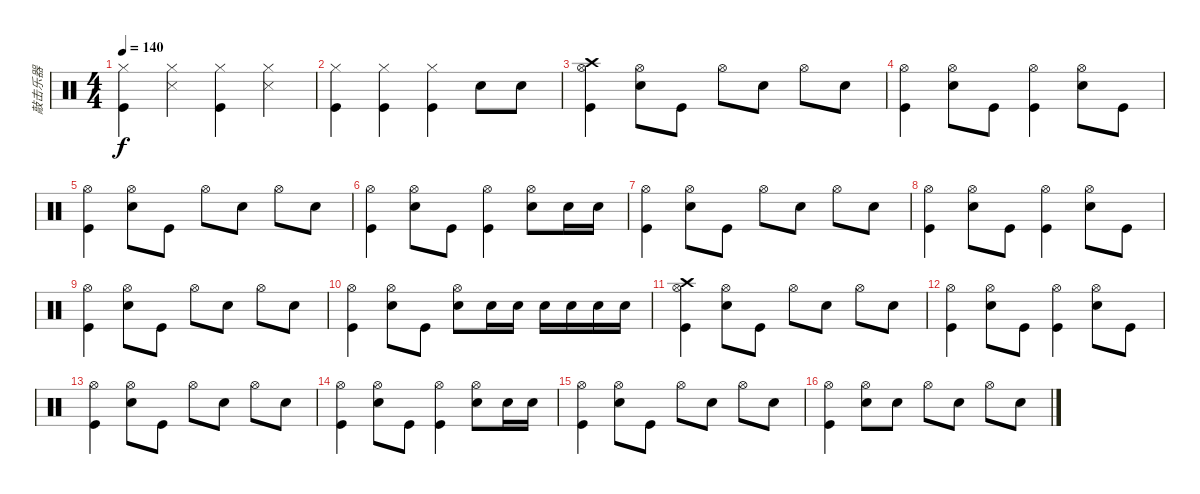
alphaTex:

\track ("敲击乐器" "敲击乐器") {instrument percussion}
\staff {score}
\articulation defaults
\ts (4 4)
\tempo 140
\clef neutral
\ks c
("Kick (hit)" "Hi-Hat (closed)").4{dy f} ("Snare (side stick) 3" "Hi-Hat (closed)").4 ("Kick (hit)" "Hi-Hat (closed)").4 ("Snare (side stick) 3" "Hi-Hat (closed)").4 |
("Kick (hit)" "Hi-Hat (closed)").4 ("Kick (hit)" "Hi-Hat (closed)").4 ("Kick (hit)" "Hi-Hat (closed)").4 "Snare (hit) 2".8 "Snare (hit) 2".8 |
("Hi-Hat (open)" "Kick (hit)" "Crash high (hit)").4 ("Snare (hit) 2" "Hi-Hat (open)").8 "Kick (hit)".8 "Hi-Hat (open)".8 "Snare (hit) 2".8 "Hi-Hat (open)".8 "Snare (hit) 2".8 |
("Kick (hit)" "Hi-Hat (open)").4 ("Snare (hit) 2" "Hi-Hat (open)").8 "Kick (hit)".8 ("Kick (hit)" "Hi-Hat (open)").4 ("Snare (hit) 2" "Hi-Hat (open)").8 "Kick (hit)".8 |
("Hi-Hat (open)" "Kick (hit)").4 ("Snare (hit) 2" "Hi-Hat (open)").8 "Kick (hit)".8 "Hi-Hat (open)".8 "Snare (hit) 2".8 "Hi-Hat (open)".8 "Snare (hit) 2".8 |
("Kick (hit)" "Hi-Hat (open)").4 ("Snare (hit) 2" "Hi-Hat (open)").8 "Kick (hit)".8 ("Kick (hit)" "Hi-Hat (open)").4 ("Snare (hit) 2" "Hi-Hat (open)").8 "Snare (hit) 2".16 "Snare (hit) 2".16 |
("Hi-Hat (open)" "Kick (hit)").4 ("Snare (hit) 2" "Hi-Hat (open)").8 "Kick (hit)".8 "Hi-Hat (open)".8 "Snare (hit) 2".8 "Hi-Hat (open)".8 "Snare (hit) 2".8 |
("Kick (hit)" "Hi-Hat (open)").4 ("Snare (hit) 2" "Hi-Hat (open)").8 "Kick (hit)".8 ("Kick (hit)" "Hi-Hat (open)").4 ("Snare (hit) 2" "Hi-Hat (open)").8 "Kick (hit)".8 |
("Hi-Hat (open)" "Kick (hit)").4 ("Snare (hit) 2" "Hi-Hat (open)").8 "Kick (hit)".8 "Hi-Hat (open)".8 "Snare (hit) 2".8 "Hi-Hat (open)".8 "Snare (hit) 2".8 |
("Kick (hit)" "Hi-Hat (open)").4 ("Snare (hit) 2" "Hi-Hat (open)").8 "Kick (hit)".8 ("Snare (hit) 2" "Hi-Hat (open)").8 "Snare (hit) 2".16 "Snare (hit) 2".16 "Snare (hit) 2".16 "Snare (hit) 2".16 "Snare (hit) 2".16 "Snare (hit) 2".16 |
("Hi-Hat (open)" "Kick (hit)" "Crash high (hit)").4 ("Snare (hit) 2" "Hi-Hat (open)").8 "Kick (hit)".8 "Hi-Hat (open)".8 "Snare (hit) 2".8 "Hi-Hat (open)".8 "Snare (hit) 2".8 |
("Kick (hit)" "Hi-Hat (open)").4 ("Snare (hit) 2" "Hi-Hat (open)").8 "Kick (hit)".8 ("Kick (hit)" "Hi-Hat (open)").4 ("Snare (hit) 2" "Hi-Hat (open)").8 "Kick (hit)".8 |
("Hi-Hat (open)" "Kick (hit)").4 ("Snare (hit) 2" "Hi-Hat (open)").8 "Kick (hit)".8 "Hi-Hat (open)".8 "Snare (hit) 2".8 "Hi-Hat (open)".8 "Snare (hit) 2".8 |
("Kick (hit)" "Hi-Hat (open)").4 ("Snare (hit) 2" "Hi-Hat (open)").8 "Kick (hit)".8 ("Kick (hit)" "Hi-Hat (open)").4 ("Snare (hit) 2" "Hi-Hat (open)").8 "Snare (hit) 2".16 "Snare (hit) 2".16 |
("Hi-Hat (open)" "Kick (hit)").4 ("Snare (hit) 2" "Hi-Hat (open)").8 "Kick (hit)".8 "Hi-Hat (open)".8 "Snare (hit) 2".8 "Hi-Hat (open)".8 "Snare (hit) 2".8 |
("Kick (hit)" "Hi-Hat (open)").4 ("Snare (hit) 2" "Hi-Hat (open)").8 "Snare (hit) 2".8 "Hi-Hat (open)".8 "Snare (hit) 2".8 "Hi-Hat (open)".8 "Snare (hit) 2".8
